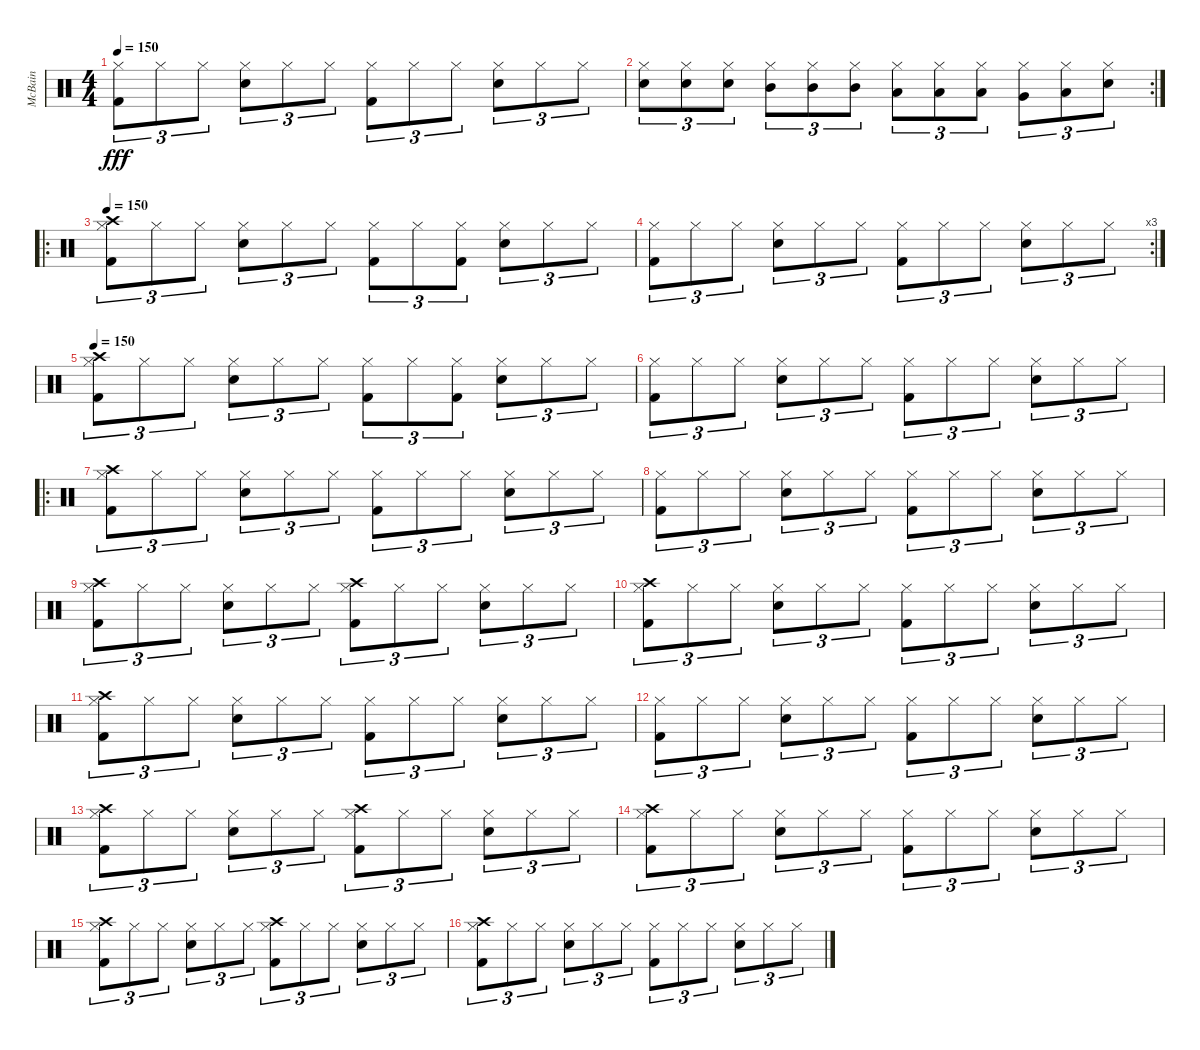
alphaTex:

\track ("McBain" "McBain") {instrument percussion}
\staff {score}
\articulation defaults
\ts (4 4)
\tempo 150
\clef neutral
\ks c
("Hi-Hat (closed)" "Kick (hit) 2").8{tu (3 2) dy fff} "Hi-Hat (closed)".8{tu (3 2)} "Hi-Hat (closed)".8{tu (3 2)} ("Hi-Hat (closed)" "Snare (hit) 2").8{tu (3 2)} "Hi-Hat (closed)".8{tu (3 2)} "Hi-Hat (closed)".8{tu (3 2)} ("Hi-Hat (closed)" "Kick (hit) 2").8{tu (3 2)} "Hi-Hat (closed)".8{tu (3 2)} "Hi-Hat (closed)".8{tu (3 2)} ("Hi-Hat (closed)" "Snare (hit) 2").8{tu (3 2)} "Hi-Hat (closed)".8{tu (3 2)} "Hi-Hat (closed)".8{tu (3 2)} |
\rc 2
("Snare (hit) 2" "Hi-Hat (closed)").8{tu (3 2)} ("Snare (hit) 2" "Hi-Hat (closed)").8{tu (3 2)} ("Snare (hit) 2" "Hi-Hat (closed)").8{tu (3 2)} ("Mid Tom (hit)" "Hi-Hat (closed)").8{tu (3 2)} ("Mid Tom (hit)" "Hi-Hat (closed)").8{tu (3 2)} ("Mid Tom (hit)" "Hi-Hat (closed)").8{tu (3 2)} ("Low Tom (hit)" "Hi-Hat (closed)").8{tu (3 2)} ("Low Tom (hit)" "Hi-Hat (closed)").8{tu (3 2)} ("Low Tom (hit)" "Hi-Hat (closed)").8{tu (3 2)} ("Very Low Tom (hit)" "Hi-Hat (closed)").8{tu (3 2)} ("Low Floor Tom (hit)" "Hi-Hat (closed)").8{tu (3 2)} ("Electric Snare (hit)" "Hi-Hat (closed)").8{tu (3 2)} |
\ro
\tempo 150
("Hi-Hat (closed)" "Kick (hit) 2" "Crash high (hit)").8{tu (3 2)} "Hi-Hat (closed)".8{tu (3 2)} "Hi-Hat (closed)".8{tu (3 2)} ("Hi-Hat (closed)" "Snare (hit) 2").8{tu (3 2)} "Hi-Hat (closed)".8{tu (3 2)} "Hi-Hat (closed)".8{tu (3 2)} ("Hi-Hat (closed)" "Kick (hit) 2").8{tu (3 2)} "Hi-Hat (closed)".8{tu (3 2)} ("Hi-Hat (closed)" "Kick (hit) 2").8{tu (3 2)} ("Hi-Hat (closed)" "Snare (hit) 2").8{tu (3 2)} "Hi-Hat (closed)".8{tu (3 2)} "Hi-Hat (closed)".8{tu (3 2)} |
\rc 3
("Hi-Hat (closed)" "Kick (hit) 2").8{tu (3 2)} "Hi-Hat (closed)".8{tu (3 2)} "Hi-Hat (closed)".8{tu (3 2)} ("Hi-Hat (closed)" "Snare (hit) 2").8{tu (3 2)} "Hi-Hat (closed)".8{tu (3 2)} "Hi-Hat (closed)".8{tu (3 2)} ("Hi-Hat (closed)" "Kick (hit) 2").8{tu (3 2)} "Hi-Hat (closed)".8{tu (3 2)} "Hi-Hat (closed)".8{tu (3 2)} ("Hi-Hat (closed)" "Snare (hit) 2").8{tu (3 2)} "Hi-Hat (closed)".8{tu (3 2)} "Hi-Hat (closed)".8{tu (3 2)} |
\tempo 150
("Hi-Hat (closed)" "Kick (hit) 2" "Crash high (hit)").8{tu (3 2)} "Hi-Hat (closed)".8{tu (3 2)} "Hi-Hat (closed)".8{tu (3 2)} ("Hi-Hat (closed)" "Snare (hit) 2").8{tu (3 2)} "Hi-Hat (closed)".8{tu (3 2)} "Hi-Hat (closed)".8{tu (3 2)} ("Hi-Hat (closed)" "Kick (hit) 2").8{tu (3 2)} "Hi-Hat (closed)".8{tu (3 2)} ("Hi-Hat (closed)" "Kick (hit) 2").8{tu (3 2)} ("Hi-Hat (closed)" "Snare (hit) 2").8{tu (3 2)} "Hi-Hat (closed)".8{tu (3 2)} "Hi-Hat (closed)".8{tu (3 2)} |
("Hi-Hat (closed)" "Kick (hit) 2").8{tu (3 2)} "Hi-Hat (closed)".8{tu (3 2)} "Hi-Hat (closed)".8{tu (3 2)} ("Hi-Hat (closed)" "Snare (hit) 2").8{tu (3 2)} "Hi-Hat (closed)".8{tu (3 2)} "Hi-Hat (closed)".8{tu (3 2)} ("Hi-Hat (closed)" "Kick (hit) 2").8{tu (3 2)} "Hi-Hat (closed)".8{tu (3 2)} "Hi-Hat (closed)".8{tu (3 2)} ("Hi-Hat (closed)" "Snare (hit) 2").8{tu (3 2)} "Hi-Hat (closed)".8{tu (3 2)} "Hi-Hat (closed)".8{tu (3 2)} |
\ro
("Hi-Hat (closed)" "Kick (hit) 2" "Crash high (hit)").8{tu (3 2)} "Hi-Hat (closed)".8{tu (3 2)} "Hi-Hat (closed)".8{tu (3 2)} ("Hi-Hat (closed)" "Snare (hit) 2").8{tu (3 2)} "Hi-Hat (closed)".8{tu (3 2)} "Hi-Hat (closed)".8{tu (3 2)} ("Hi-Hat (closed)" "Kick (hit) 2").8{tu (3 2)} "Hi-Hat (closed)".8{tu (3 2)} "Hi-Hat (closed)".8{tu (3 2)} ("Hi-Hat (closed)" "Snare (hit) 2").8{tu (3 2)} "Hi-Hat (closed)".8{tu (3 2)} "Hi-Hat (closed)".8{tu (3 2)} |
("Hi-Hat (closed)" "Kick (hit) 2").8{tu (3 2)} "Hi-Hat (closed)".8{tu (3 2)} "Hi-Hat (closed)".8{tu (3 2)} ("Hi-Hat (closed)" "Snare (hit) 2").8{tu (3 2)} "Hi-Hat (closed)".8{tu (3 2)} "Hi-Hat (closed)".8{tu (3 2)} ("Hi-Hat (closed)" "Kick (hit) 2").8{tu (3 2)} "Hi-Hat (closed)".8{tu (3 2)} "Hi-Hat (closed)".8{tu (3 2)} ("Hi-Hat (closed)" "Snare (hit) 2").8{tu (3 2)} "Hi-Hat (closed)".8{tu (3 2)} "Hi-Hat (closed)".8{tu (3 2)} |
("Hi-Hat (closed)" "Kick (hit) 2" "Crash high (hit)").8{tu (3 2)} "Hi-Hat (closed)".8{tu (3 2)} "Hi-Hat (closed)".8{tu (3 2)} ("Hi-Hat (closed)" "Snare (hit) 2").8{tu (3 2)} "Hi-Hat (closed)".8{tu (3 2)} "Hi-Hat (closed)".8{tu (3 2)} ("Hi-Hat (closed)" "Kick (hit) 2" "Crash high (hit)").8{tu (3 2)} "Hi-Hat (closed)".8{tu (3 2)} "Hi-Hat (closed)".8{tu (3 2)} ("Hi-Hat (closed)" "Snare (hit) 2").8{tu (3 2)} "Hi-Hat (closed)".8{tu (3 2)} "Hi-Hat (closed)".8{tu (3 2)} |
("Hi-Hat (closed)" "Kick (hit) 2" "Crash high (hit)").8{tu (3 2)} "Hi-Hat (closed)".8{tu (3 2)} "Hi-Hat (closed)".8{tu (3 2)} ("Hi-Hat (closed)" "Snare (hit) 2").8{tu (3 2)} "Hi-Hat (closed)".8{tu (3 2)} "Hi-Hat (closed)".8{tu (3 2)} ("Hi-Hat (closed)" "Kick (hit) 2").8{tu (3 2)} "Hi-Hat (closed)".8{tu (3 2)} "Hi-Hat (closed)".8{tu (3 2)} ("Hi-Hat (closed)" "Snare (hit) 2").8{tu (3 2)} "Hi-Hat (closed)".8{tu (3 2)} "Hi-Hat (closed)".8{tu (3 2)} |
("Hi-Hat (closed)" "Kick (hit) 2" "Crash high (hit)").8{tu (3 2)} "Hi-Hat (closed)".8{tu (3 2)} "Hi-Hat (closed)".8{tu (3 2)} ("Hi-Hat (closed)" "Snare (hit) 2").8{tu (3 2)} "Hi-Hat (closed)".8{tu (3 2)} "Hi-Hat (closed)".8{tu (3 2)} ("Hi-Hat (closed)" "Kick (hit) 2").8{tu (3 2)} "Hi-Hat (closed)".8{tu (3 2)} "Hi-Hat (closed)".8{tu (3 2)} ("Hi-Hat (closed)" "Snare (hit) 2").8{tu (3 2)} "Hi-Hat (closed)".8{tu (3 2)} "Hi-Hat (closed)".8{tu (3 2)} |
("Hi-Hat (closed)" "Kick (hit) 2").8{tu (3 2)} "Hi-Hat (closed)".8{tu (3 2)} "Hi-Hat (closed)".8{tu (3 2)} ("Hi-Hat (closed)" "Snare (hit) 2").8{tu (3 2)} "Hi-Hat (closed)".8{tu (3 2)} "Hi-Hat (closed)".8{tu (3 2)} ("Hi-Hat (closed)" "Kick (hit) 2").8{tu (3 2)} "Hi-Hat (closed)".8{tu (3 2)} "Hi-Hat (closed)".8{tu (3 2)} ("Hi-Hat (closed)" "Snare (hit) 2").8{tu (3 2)} "Hi-Hat (closed)".8{tu (3 2)} "Hi-Hat (closed)".8{tu (3 2)} |
("Hi-Hat (closed)" "Kick (hit) 2" "Crash high (hit)").8{tu (3 2)} "Hi-Hat (closed)".8{tu (3 2)} "Hi-Hat (closed)".8{tu (3 2)} ("Hi-Hat (closed)" "Snare (hit) 2").8{tu (3 2)} "Hi-Hat (closed)".8{tu (3 2)} "Hi-Hat (closed)".8{tu (3 2)} ("Hi-Hat (closed)" "Kick (hit) 2" "Crash high (hit)").8{tu (3 2)} "Hi-Hat (closed)".8{tu (3 2)} "Hi-Hat (closed)".8{tu (3 2)} ("Hi-Hat (closed)" "Snare (hit) 2").8{tu (3 2)} "Hi-Hat (closed)".8{tu (3 2)} "Hi-Hat (closed)".8{tu (3 2)} |
("Hi-Hat (closed)" "Kick (hit) 2" "Crash high (hit)").8{tu (3 2)} "Hi-Hat (closed)".8{tu (3 2)} "Hi-Hat (closed)".8{tu (3 2)} ("Hi-Hat (closed)" "Snare (hit) 2").8{tu (3 2)} "Hi-Hat (closed)".8{tu (3 2)} "Hi-Hat (closed)".8{tu (3 2)} ("Hi-Hat (closed)" "Kick (hit) 2").8{tu (3 2)} "Hi-Hat (closed)".8{tu (3 2)} "Hi-Hat (closed)".8{tu (3 2)} ("Hi-Hat (closed)" "Snare (hit) 2").8{tu (3 2)} "Hi-Hat (closed)".8{tu (3 2)} "Hi-Hat (closed)".8{tu (3 2)} |
("Hi-Hat (closed)" "Kick (hit) 2" "Crash high (hit)").8{tu (3 2)} "Hi-Hat (closed)".8{tu (3 2)} "Hi-Hat (closed)".8{tu (3 2)} ("Hi-Hat (closed)" "Snare (hit) 2").8{tu (3 2)} "Hi-Hat (closed)".8{tu (3 2)} "Hi-Hat (closed)".8{tu (3 2)} ("Hi-Hat (closed)" "Kick (hit) 2" "Crash high (hit)").8{tu (3 2)} "Hi-Hat (closed)".8{tu (3 2)} "Hi-Hat (closed)".8{tu (3 2)} ("Hi-Hat (closed)" "Snare (hit) 2").8{tu (3 2)} "Hi-Hat (closed)".8{tu (3 2)} "Hi-Hat (closed)".8{tu (3 2)} |
("Hi-Hat (closed)" "Kick (hit) 2" "Crash high (hit)").8{tu (3 2)} "Hi-Hat (closed)".8{tu (3 2)} "Hi-Hat (closed)".8{tu (3 2)} ("Hi-Hat (closed)" "Snare (hit) 2").8{tu (3 2)} "Hi-Hat (closed)".8{tu (3 2)} "Hi-Hat (closed)".8{tu (3 2)} ("Hi-Hat (closed)" "Kick (hit) 2").8{tu (3 2)} "Hi-Hat (closed)".8{tu (3 2)} "Hi-Hat (closed)".8{tu (3 2)} ("Hi-Hat (closed)" "Snare (hit) 2").8{tu (3 2)} "Hi-Hat (closed)".8{tu (3 2)} "Hi-Hat (closed)".8{tu (3 2)}
